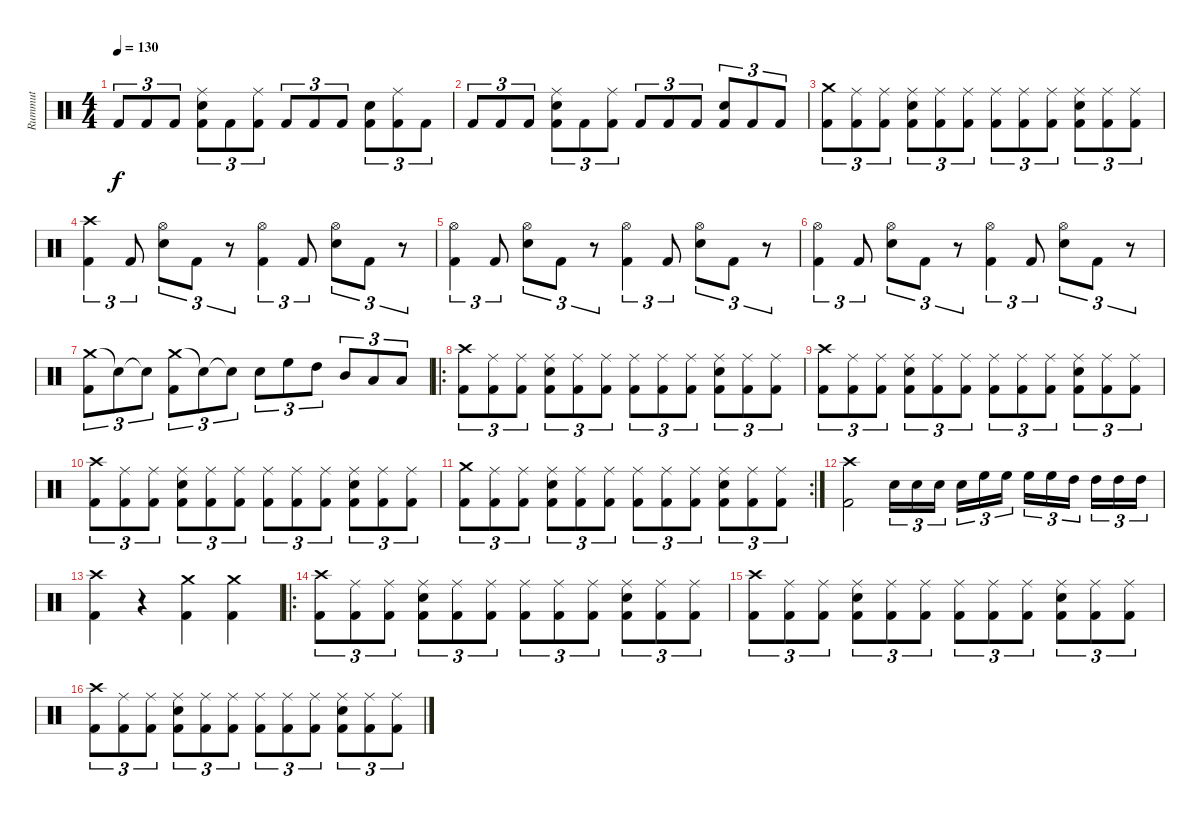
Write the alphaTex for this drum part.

\track ("Rummut" "Rummut") {instrument percussion}
\staff {score}
\articulation defaults
\ts (4 4)
\tempo 130
\clef neutral
\ks c "Kick (hit) 2".8{tu (3 2) dy f} "Kick (hit) 2".8{tu (3 2)} "Kick (hit) 2".8{tu (3 2)}
("Kick (hit) 2" "Electric Snare (hit)" "Ride (middle)").8{tu (3 2)} "Kick (hit) 2".8{tu (3 2)} ("Kick (hit) 2" "Ride (middle)").8{tu (3 2)} "Kick (hit) 2".8{tu (3 2)} "Kick (hit) 2".8{tu (3 2)} "Kick (hit) 2".8{tu (3 2)} ("Kick (hit) 2" "Electric Snare (hit)").8{tu (3 2)} ("Kick (hit) 2" "Ride (middle)").8{tu (3 2)} "Kick (hit) 2".8{tu (3 2)} |
"Kick (hit) 2".8{tu (3 2)} "Kick (hit) 2".8{tu (3 2)} "Kick (hit) 2".8{tu (3 2)} ("Kick (hit) 2" "Electric Snare (hit)" "Ride (middle)").8{tu (3 2)} "Kick (hit) 2".8{tu (3 2)} ("Kick (hit) 2" "Ride (middle)").8{tu (3 2)} "Kick (hit) 2".8{tu (3 2)} "Kick (hit) 2".8{tu (3 2)} "Kick (hit) 2".8{tu (3 2)} ("Kick (hit) 2" "Electric Snare (hit)").8{tu (3 2)} "Kick (hit) 2".8{tu (3 2)} "Kick (hit) 2".8{tu (3 2)} |
("Kick (hit) 2" "Crash medium (hit)").8{tu (3 2)} ("Kick (hit) 2" "Ride (middle)").8{tu (3 2)} ("Kick (hit) 2" "Ride (middle)").8{tu (3 2)} ("Kick (hit) 2" "Electric Snare (hit)" "Ride (middle)").8{tu (3 2)} ("Kick (hit) 2" "Ride (middle)").8{tu (3 2)} ("Kick (hit) 2" "Ride (middle)").8{tu (3 2)} ("Kick (hit) 2" "Ride (middle)").8{tu (3 2)} ("Kick (hit) 2" "Ride (middle)").8{tu (3 2)} ("Kick (hit) 2" "Ride (middle)").8{tu (3 2)} ("Kick (hit) 2" "Electric Snare (hit)" "Ride (middle)").8{tu (3 2)} ("Kick (hit) 2" "Ride (middle)").8{tu (3 2)} ("Kick (hit) 2" "Ride (middle)").8{tu (3 2)} |
("Kick (hit) 2" "Crash high (hit)").4{tu (3 2)} "Kick (hit) 2".8{tu (3 2)} ("Electric Snare (hit)" "Hi-Hat (open)").8{tu (3 2)} "Kick (hit) 2".8{tu (3 2)} r.8{tu (3 2)} ("Kick (hit) 2" "Hi-Hat (open)").4{tu (3 2)} "Kick (hit) 2".8{tu (3 2)} ("Electric Snare (hit)" "Hi-Hat (open)").8{tu (3 2)} "Kick (hit) 2".8{tu (3 2)} r.8{tu (3 2)} |
("Kick (hit) 2" "Hi-Hat (open)").4{tu (3 2)} "Kick (hit) 2".8{tu (3 2)} ("Electric Snare (hit)" "Hi-Hat (open)").8{tu (3 2)} "Kick (hit) 2".8{tu (3 2)} r.8{tu (3 2)} ("Kick (hit) 2" "Hi-Hat (open)").4{tu (3 2)} "Kick (hit) 2".8{tu (3 2)} ("Electric Snare (hit)" "Hi-Hat (open)").8{tu (3 2)} "Kick (hit) 2".8{tu (3 2)} r.8{tu (3 2)} |
("Kick (hit) 2" "Hi-Hat (open)").4{tu (3 2)} "Kick (hit) 2".8{tu (3 2)} ("Electric Snare (hit)" "Hi-Hat (open)").8{tu (3 2)} "Kick (hit) 2".8{tu (3 2)} r.8{tu (3 2)} ("Kick (hit) 2" "Hi-Hat (open)").4{tu (3 2)} "Kick (hit) 2".8{tu (3 2)} ("Electric Snare (hit)" "Hi-Hat (open)").8{tu (3 2)} "Kick (hit) 2".8{tu (3 2)} r.8{tu (3 2)} |
("Crash medium (hit)" "Kick (hit) 2").8{tu (3 2)} "Snare (hit)"{t}.8{tu (3 2)} "Snare (hit)"{t}.8{tu (3 2)} ("Crash medium (hit)" "Kick (hit) 2").8{tu (3 2)} "Snare (hit)"{t}.8{tu (3 2)} "Snare (hit)"{t}.8{tu (3 2)} "Electric Snare (hit)".8{tu (3 2)} "High Floor Tom (hit)".8{tu (3 2)} "High Tom (hit)".8{tu (3 2)} "Mid Tom (hit)".8{tu (3 2)} "Low Tom (hit)".8{tu (3 2)} "Low Tom (hit)".8{tu (3 2)} |
\ro
("Kick (hit) 2" "Crash high (hit)").8{tu (3 2)} ("Kick (hit) 2" "Ride (middle)").8{tu (3 2)} ("Kick (hit) 2" "Ride (middle)").8{tu (3 2)} ("Kick (hit) 2" "Electric Snare (hit)" "Ride (middle)").8{tu (3 2)} ("Kick (hit) 2" "Ride (middle)").8{tu (3 2)} ("Kick (hit) 2" "Ride (middle)").8{tu (3 2)} ("Kick (hit) 2" "Ride (middle)").8{tu (3 2)} ("Kick (hit) 2" "Ride (middle)").8{tu (3 2)} ("Kick (hit) 2" "Ride (middle)").8{tu (3 2)} ("Kick (hit) 2" "Electric Snare (hit)" "Ride (middle)").8{tu (3 2)} ("Kick (hit) 2" "Ride (middle)").8{tu (3 2)} ("Kick (hit) 2" "Ride (middle)").8{tu (3 2)} |
("Kick (hit) 2" "Crash high (hit)").8{tu (3 2)} ("Kick (hit) 2" "Ride (middle)").8{tu (3 2)} ("Kick (hit) 2" "Ride (middle)").8{tu (3 2)} ("Kick (hit) 2" "Electric Snare (hit)" "Ride (middle)").8{tu (3 2)} ("Kick (hit) 2" "Ride (middle)").8{tu (3 2)} ("Kick (hit) 2" "Ride (middle)").8{tu (3 2)} ("Kick (hit) 2" "Ride (middle)").8{tu (3 2)} ("Kick (hit) 2" "Ride (middle)").8{tu (3 2)} ("Kick (hit) 2" "Ride (middle)").8{tu (3 2)} ("Kick (hit) 2" "Electric Snare (hit)" "Ride (middle)").8{tu (3 2)} ("Kick (hit) 2" "Ride (middle)").8{tu (3 2)} ("Kick (hit) 2" "Ride (middle)").8{tu (3 2)} |
("Kick (hit) 2" "Crash high (hit)").8{tu (3 2)} ("Kick (hit) 2" "Ride (middle)").8{tu (3 2)} ("Kick (hit) 2" "Ride (middle)").8{tu (3 2)} ("Kick (hit) 2" "Electric Snare (hit)" "Ride (middle)").8{tu (3 2)} ("Kick (hit) 2" "Ride (middle)").8{tu (3 2)} ("Kick (hit) 2" "Ride (middle)").8{tu (3 2)} ("Kick (hit) 2" "Ride (middle)").8{tu (3 2)} ("Kick (hit) 2" "Ride (middle)").8{tu (3 2)} ("Kick (hit) 2" "Ride (middle)").8{tu (3 2)} ("Kick (hit) 2" "Electric Snare (hit)" "Ride (middle)").8{tu (3 2)} ("Kick (hit) 2" "Ride (middle)").8{tu (3 2)} ("Kick (hit) 2" "Ride (middle)").8{tu (3 2)} |
\rc 2
("Kick (hit) 2" "Crash medium (hit)").8{tu (3 2)} ("Kick (hit) 2" "Ride (middle)").8{tu (3 2)} ("Kick (hit) 2" "Ride (middle)").8{tu (3 2)} ("Kick (hit) 2" "Electric Snare (hit)" "Ride (middle)").8{tu (3 2)} ("Kick (hit) 2" "Ride (middle)").8{tu (3 2)} ("Kick (hit) 2" "Ride (middle)").8{tu (3 2)} ("Kick (hit) 2" "Ride (middle)").8{tu (3 2)} ("Kick (hit) 2" "Ride (middle)").8{tu (3 2)} ("Kick (hit) 2" "Ride (middle)").8{tu (3 2)} ("Kick (hit) 2" "Electric Snare (hit)" "Ride (middle)").8{tu (3 2)} ("Kick (hit) 2" "Ride (middle)").8{tu (3 2)} ("Kick (hit) 2" "Ride (middle)").8{tu (3 2)} |
("Crash high (hit)" "Kick (hit) 2").2 "Electric Snare (hit)".16{tu (3 2)} "Electric Snare (hit)".16{tu (3 2)} "Electric Snare (hit)".16{tu (3 2)} "Electric Snare (hit)".16{tu (3 2)} "High Floor Tom (hit)".16{tu (3 2)} "High Floor Tom (hit)".16{tu (3 2)} "High Floor Tom (hit)".16{tu (3 2)} "High Floor Tom (hit)".16{tu (3 2)} "High Tom (hit)".16{tu (3 2)} "High Tom (hit)".16{tu (3 2)} "High Tom (hit)".16{tu (3 2)} "High Tom (hit)".16{tu (3 2)} |
("Crash high (hit)" "Kick (hit) 2").4 r.4 ("Crash medium (hit)" "Kick (hit) 2").4 ("Crash medium (hit)" "Kick (hit) 2").4 |
\ro
("Kick (hit) 2" "Crash high (hit)").8{tu (3 2)} ("Kick (hit) 2" "Ride (middle)").8{tu (3 2)} ("Kick (hit) 2" "Ride (middle)").8{tu (3 2)} ("Kick (hit) 2" "Electric Snare (hit)" "Ride (middle)").8{tu (3 2)} ("Kick (hit) 2" "Ride (middle)").8{tu (3 2)} ("Kick (hit) 2" "Ride (middle)").8{tu (3 2)} ("Kick (hit) 2" "Ride (middle)").8{tu (3 2)} ("Kick (hit) 2" "Ride (middle)").8{tu (3 2)} ("Kick (hit) 2" "Ride (middle)").8{tu (3 2)} ("Kick (hit) 2" "Electric Snare (hit)" "Ride (middle)").8{tu (3 2)} ("Kick (hit) 2" "Ride (middle)").8{tu (3 2)} ("Kick (hit) 2" "Ride (middle)").8{tu (3 2)} |
("Kick (hit) 2" "Crash high (hit)").8{tu (3 2)} ("Kick (hit) 2" "Ride (middle)").8{tu (3 2)} ("Kick (hit) 2" "Ride (middle)").8{tu (3 2)} ("Kick (hit) 2" "Electric Snare (hit)" "Ride (middle)").8{tu (3 2)} ("Kick (hit) 2" "Ride (middle)").8{tu (3 2)} ("Kick (hit) 2" "Ride (middle)").8{tu (3 2)} ("Kick (hit) 2" "Ride (middle)").8{tu (3 2)} ("Kick (hit) 2" "Ride (middle)").8{tu (3 2)} ("Kick (hit) 2" "Ride (middle)").8{tu (3 2)} ("Kick (hit) 2" "Electric Snare (hit)" "Ride (middle)").8{tu (3 2)} ("Kick (hit) 2" "Ride (middle)").8{tu (3 2)} ("Kick (hit) 2" "Ride (middle)").8{tu (3 2)} |
("Kick (hit) 2" "Crash high (hit)").8{tu (3 2)} ("Kick (hit) 2" "Ride (middle)").8{tu (3 2)} ("Kick (hit) 2" "Ride (middle)").8{tu (3 2)} ("Kick (hit) 2" "Electric Snare (hit)" "Ride (middle)").8{tu (3 2)} ("Kick (hit) 2" "Ride (middle)").8{tu (3 2)} ("Kick (hit) 2" "Ride (middle)").8{tu (3 2)} ("Kick (hit) 2" "Ride (middle)").8{tu (3 2)} ("Kick (hit) 2" "Ride (middle)").8{tu (3 2)} ("Kick (hit) 2" "Ride (middle)").8{tu (3 2)} ("Kick (hit) 2" "Electric Snare (hit)" "Ride (middle)").8{tu (3 2)} ("Kick (hit) 2" "Ride (middle)").8{tu (3 2)} ("Kick (hit) 2" "Ride (middle)").8{tu (3 2)}
